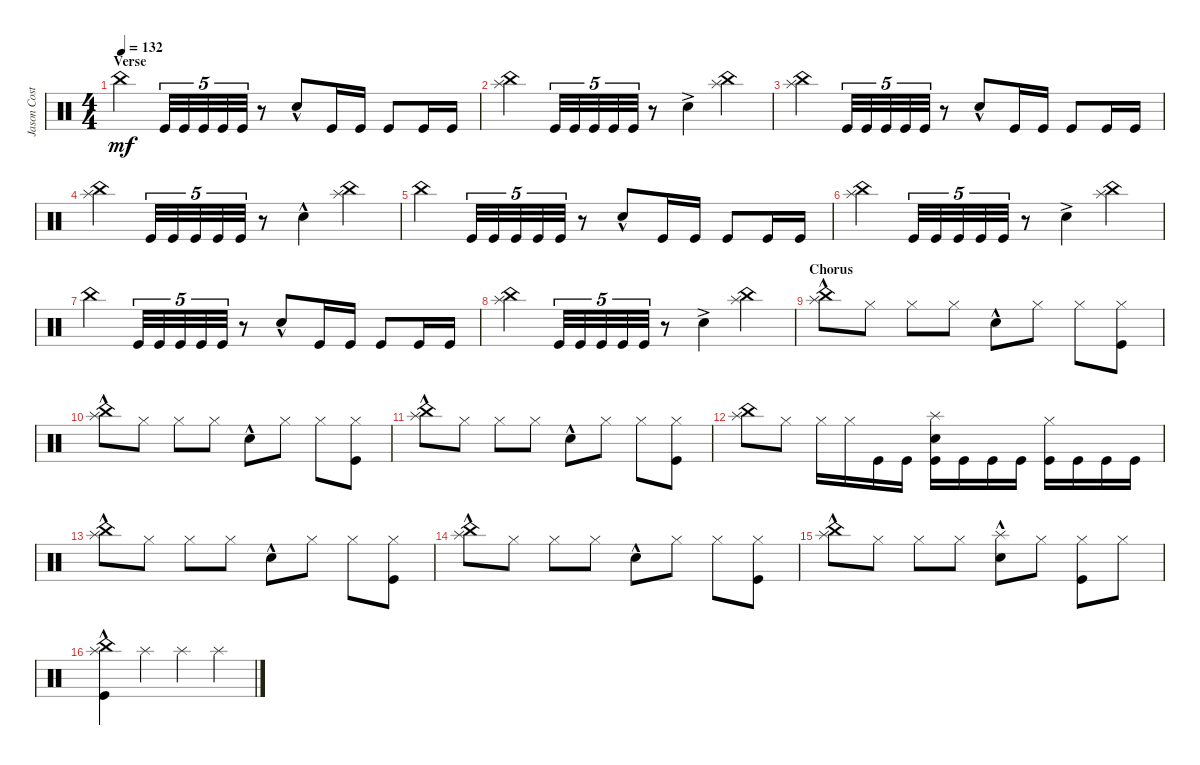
\track ("Jason Costa" "Jason Cost") {instrument percussion}
\staff {score}
\articulation defaults
\ts (4 4)
\section ("" "Verse")
\tempo 132
\clef neutral
\ks c "China (hit)".4{dy mf} "Kick (hit)".32{tu (5 4)} "Kick (hit)".32{tu (5 4)} "Kick (hit)".32{tu (5 4)} "Kick (hit)".32{tu (5 4)} "Kick (hit)".32{tu (5 4)}
r.8 "Snare (hit) 2"{hac}.8 "Kick (hit)".16 "Kick (hit)".16 "Kick (hit)".8 "Kick (hit)".16 "Kick (hit)".16 |
("China (hit)" "Splash (hit)").4 "Kick (hit)".32{tu (5 4)} "Kick (hit)".32{tu (5 4)} "Kick (hit)".32{tu (5 4)} "Kick (hit)".32{tu (5 4)} "Kick (hit)".32{tu (5 4)} r.8 "Snare (hit) 2"{ac}.4 ("China (hit)" "Splash (hit)").4 |
("China (hit)" "Splash (hit)").4 "Kick (hit)".32{tu (5 4)} "Kick (hit)".32{tu (5 4)} "Kick (hit)".32{tu (5 4)} "Kick (hit)".32{tu (5 4)} "Kick (hit)".32{tu (5 4)} r.8 "Snare (hit) 2"{hac}.8 "Kick (hit)".16 "Kick (hit)".16 "Kick (hit)".8 "Kick (hit)".16 "Kick (hit)".16 |
("China (hit)" "Splash (hit)").4 "Kick (hit)".32{tu (5 4)} "Kick (hit)".32{tu (5 4)} "Kick (hit)".32{tu (5 4)} "Kick (hit)".32{tu (5 4)} "Kick (hit)".32{tu (5 4)} r.8 "Snare (hit) 2"{hac}.4 ("Splash (hit)" "China (hit)").4 |
"China (hit)".4 "Kick (hit)".32{tu (5 4)} "Kick (hit)".32{tu (5 4)} "Kick (hit)".32{tu (5 4)} "Kick (hit)".32{tu (5 4)} "Kick (hit)".32{tu (5 4)} r.8 "Snare (hit) 2"{hac}.8 "Kick (hit)".16 "Kick (hit)".16 "Kick (hit)".8 "Kick (hit)".16 "Kick (hit)".16 |
("China (hit)" "Splash (hit)").4 "Kick (hit)".32{tu (5 4)} "Kick (hit)".32{tu (5 4)} "Kick (hit)".32{tu (5 4)} "Kick (hit)".32{tu (5 4)} "Kick (hit)".32{tu (5 4)} r.8 "Snare (hit) 2"{ac}.4 ("China (hit)" "Splash (hit)").4 |
"China (hit)".4 "Kick (hit)".32{tu (5 4)} "Kick (hit)".32{tu (5 4)} "Kick (hit)".32{tu (5 4)} "Kick (hit)".32{tu (5 4)} "Kick (hit)".32{tu (5 4)} r.8 "Snare (hit) 2"{hac}.8 "Kick (hit)".16 "Kick (hit)".16 "Kick (hit)".8 "Kick (hit)".16 "Kick (hit)".16 |
("China (hit)" "Splash (hit)").4 "Kick (hit)".32{tu (5 4)} "Kick (hit)".32{tu (5 4)} "Kick (hit)".32{tu (5 4)} "Kick (hit)".32{tu (5 4)} "Kick (hit)".32{tu (5 4)} r.8 "Snare (hit) 2"{ac}.4 ("China (hit)" "Splash (hit)").4 |
\section ("" "Chorus")
("China (hit)"{hac} "Splash (hit)").8 "Hi-Hat (closed)".8 "Hi-Hat (closed)".8 "Hi-Hat (closed)".8 "Snare (hit) 2"{hac}.8 "Hi-Hat (closed)".8 "Hi-Hat (closed)".8 ("Hi-Hat (closed)" "Kick (hit)").8 |
("Splash (hit)" "China (hit)"{hac}).8 "Hi-Hat (closed)".8 "Hi-Hat (closed)".8 "Hi-Hat (closed)".8 "Snare (hit) 2"{hac}.8 "Hi-Hat (closed)".8 "Hi-Hat (closed)".8 ("Kick (hit)" "Hi-Hat (closed)").8 |
("Splash (hit)" "China (hit)"{hac}).8 "Hi-Hat (closed)".8 "Hi-Hat (closed)".8 "Hi-Hat (closed)".8 "Snare (hit) 2"{hac}.8 "Hi-Hat (closed)".8 "Hi-Hat (closed)".8 ("Kick (hit)" "Hi-Hat (closed)").8 |
("Splash (hit)" "China (hit)").8 "Hi-Hat (closed)".8 "Hi-Hat (closed)".16 "Hi-Hat (closed)".16 "Kick (hit)".16 "Kick (hit)".16 ("Snare (hit) 2" "Splash (hit)" "Kick (hit)").16 "Kick (hit)".16 "Kick (hit)".16 "Kick (hit)".16 ("Hi-Hat (closed)" "Kick (hit)").16 "Kick (hit)".16 "Kick (hit)".16 "Kick (hit)".16 |
("China (hit)"{hac} "Splash (hit)").8 "Hi-Hat (closed)".8 "Hi-Hat (closed)".8 "Hi-Hat (closed)".8 "Snare (hit) 2"{hac}.8 "Hi-Hat (closed)".8 "Hi-Hat (closed)".8 ("Hi-Hat (closed)" "Kick (hit)").8 |
("China (hit)"{hac} "Splash (hit)").8 "Hi-Hat (closed)".8 "Hi-Hat (closed)".8 "Hi-Hat (closed)".8 "Snare (hit) 2"{hac}.8 "Hi-Hat (closed)".8 "Hi-Hat (closed)".8 ("Hi-Hat (closed)" "Kick (hit)").8 |
("Splash (hit)" "China (hit)"{hac}).8 "Hi-Hat (closed)".8 "Hi-Hat (closed)".8 "Hi-Hat (closed)".8 ("Snare (hit) 2" "Splash (hit)"{hac}).8 "Hi-Hat (closed)".8 ("Hi-Hat (closed)" "Kick (hit)").8 "Hi-Hat (closed)".8 |
("China (hit)" "Splash (hit)"{hac} "Kick (hit)").4 "Splash (hit)".4 "Splash (hit)".4 "Splash (hit)".4
